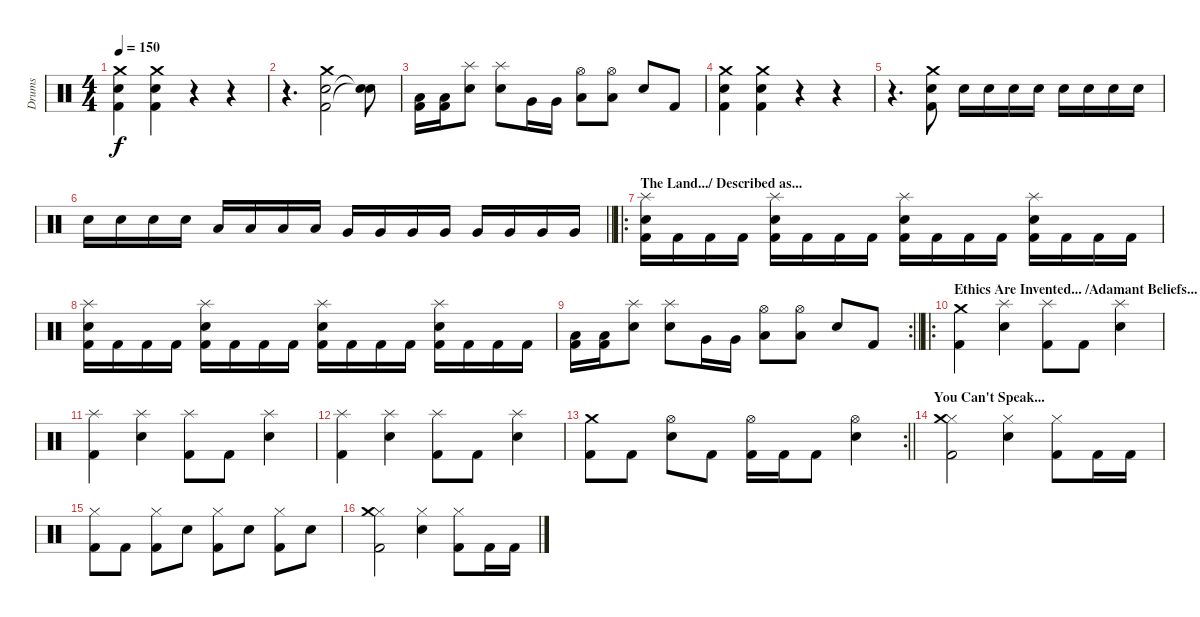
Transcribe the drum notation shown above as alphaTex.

\track ("Drums" "Drums") {instrument percussion}
\staff {score}
\articulation defaults
\ts (4 4)
\section ("" "")
\tempo 150
\clef neutral
\ks c
("Kick (hit) 2" "Electric Snare (hit)" "Crash medium (hit)").4{dy f} ("Kick (hit) 2" "Electric Snare (hit)" "Crash medium (hit)").4 r.4 r.4 |
r.4{d} ("Kick (hit) 2" "Electric Snare (hit)" "Crash medium (hit)").2 ("Snare (hit)"{t} "Snare (hit)"{t}).8 |
("Kick (hit) 2" "Low Floor Tom (hit)").16 ("Kick (hit) 2" "Low Floor Tom (hit)").16 ("Electric Snare (hit)" "Splash (hit)").8 ("Electric Snare (hit)" "Splash (hit)").8 "Very Low Tom (hit)".16 "Very Low Tom (hit)".16 ("Low Floor Tom (hit)" "Hi-Hat (open)").8 ("Low Floor Tom (hit)" "Hi-Hat (open)").8 "Electric Snare (hit)".8 "Kick (hit) 2".8 |
("Kick (hit) 2" "Electric Snare (hit)" "Crash medium (hit)").4 ("Kick (hit) 2" "Electric Snare (hit)" "Crash medium (hit)").4 r.4 r.4 |
r.4{d} ("Kick (hit) 2" "Electric Snare (hit)" "Crash medium (hit)").8 "Electric Snare (hit)".16 "Electric Snare (hit)".16 "Electric Snare (hit)".16 "Electric Snare (hit)".16 "Electric Snare (hit)".16 "Electric Snare (hit)".16 "Electric Snare (hit)".16 "Electric Snare (hit)".16 |
\barLineRight lightlight "Electric Snare (hit)".16 "Electric Snare (hit)".16 "Electric Snare (hit)".16 "Electric Snare (hit)".16 "Low Floor Tom (hit)".16 "Low Floor Tom (hit)".16 "Low Floor Tom (hit)".16 "Low Floor Tom (hit)".16 "Very Low Tom (hit)".16 "Very Low Tom (hit)".16 "Very Low Tom (hit)".16 "Very Low Tom (hit)".16 "Very Low Tom (hit)".16 "Very Low Tom (hit)".16 "Very Low Tom (hit)".16 "Very Low Tom (hit)".16
|
\ro
\section ("" "The Land.../ Described as...")
("Kick (hit) 2" "Electric Snare (hit)" "Splash (hit)").16 "Kick (hit) 2".16 "Kick (hit) 2".16 "Kick (hit) 2".16 ("Kick (hit) 2" "Electric Snare (hit)" "Splash (hit)").16 "Kick (hit) 2".16 "Kick (hit) 2".16 "Kick (hit) 2".16 ("Kick (hit) 2" "Electric Snare (hit)" "Splash (hit)").16 "Kick (hit) 2".16 "Kick (hit) 2".16 "Kick (hit) 2".16 ("Kick (hit) 2" "Electric Snare (hit)" "Splash (hit)").16 "Kick (hit) 2".16 "Kick (hit) 2".16 "Kick (hit) 2".16 |
("Kick (hit) 2" "Electric Snare (hit)" "Splash (hit)").16 "Kick (hit) 2".16 "Kick (hit) 2".16 "Kick (hit) 2".16 ("Kick (hit) 2" "Electric Snare (hit)" "Splash (hit)").16 "Kick (hit) 2".16 "Kick (hit) 2".16 "Kick (hit) 2".16 ("Kick (hit) 2" "Electric Snare (hit)" "Splash (hit)").16 "Kick (hit) 2".16 "Kick (hit) 2".16 "Kick (hit) 2".16 ("Kick (hit) 2" "Electric Snare (hit)" "Splash (hit)").16 "Kick (hit) 2".16 "Kick (hit) 2".16 "Kick (hit) 2".16 |
\rc 2
\barLineRight lightlight
("Kick (hit) 2" "Low Floor Tom (hit)").16 ("Kick (hit) 2" "Low Floor Tom (hit)").16 ("Electric Snare (hit)" "Splash (hit)").8 ("Electric Snare (hit)" "Splash (hit)").8 "Very Low Tom (hit)".16 "Very Low Tom (hit)".16 ("Low Floor Tom (hit)" "Hi-Hat (open)").8 ("Low Floor Tom (hit)" "Hi-Hat (open)").8 "Electric Snare (hit)".8 "Kick (hit) 2".8 |
\ro
\section ("" "Ethics Are Invented... /Adamant Beliefs...")
("Kick (hit) 2" "Crash medium (hit)").4 ("Electric Snare (hit)" "Splash (hit)").4 ("Kick (hit) 2" "Splash (hit)").8 "Kick (hit) 2".8 ("Electric Snare (hit)" "Splash (hit)").4 |
("Kick (hit) 2" "Splash (hit)").4 ("Electric Snare (hit)" "Splash (hit)").4 ("Kick (hit) 2" "Splash (hit)").8 "Kick (hit) 2".8 ("Electric Snare (hit)" "Splash (hit)").4 |
("Kick (hit) 2" "Splash (hit)").4 ("Electric Snare (hit)" "Splash (hit)").4 ("Kick (hit) 2" "Splash (hit)").8 "Kick (hit) 2".8 ("Electric Snare (hit)" "Splash (hit)").4 |
\rc 2
\barLineRight lightlight
("Kick (hit) 2" "Crash medium (hit)").8 "Kick (hit) 2".8 ("Electric Snare (hit)" "Hi-Hat (open)").8 "Kick (hit) 2".8 ("Kick (hit) 2" "Hi-Hat (open)").16 "Kick (hit) 2".16 "Kick (hit) 2".8 ("Electric Snare (hit)" "Hi-Hat (open)").4 |
\section ("" "You Can't Speak...")
("Kick (hit) 2" "Hi-Hat (closed)" "Crash medium (hit)").2 ("Electric Snare (hit)" "Hi-Hat (closed)").4 ("Kick (hit) 2" "Hi-Hat (closed)").8 "Kick (hit) 2".16 "Kick (hit) 2".16 |
("Kick (hit) 2" "Hi-Hat (closed)").8 "Kick (hit) 2".8 ("Kick (hit) 2" "Hi-Hat (closed)").8 "Electric Snare (hit)".8 ("Kick (hit) 2" "Hi-Hat (closed)").8 "Electric Snare (hit)".8 ("Kick (hit) 2" "Hi-Hat (closed)").8 "Electric Snare (hit)".8 |
("Kick (hit) 2" "Hi-Hat (closed)" "Crash medium (hit)").2 ("Electric Snare (hit)" "Hi-Hat (closed)").4 ("Kick (hit) 2" "Hi-Hat (closed)").8 "Kick (hit) 2".16 "Kick (hit) 2".16
